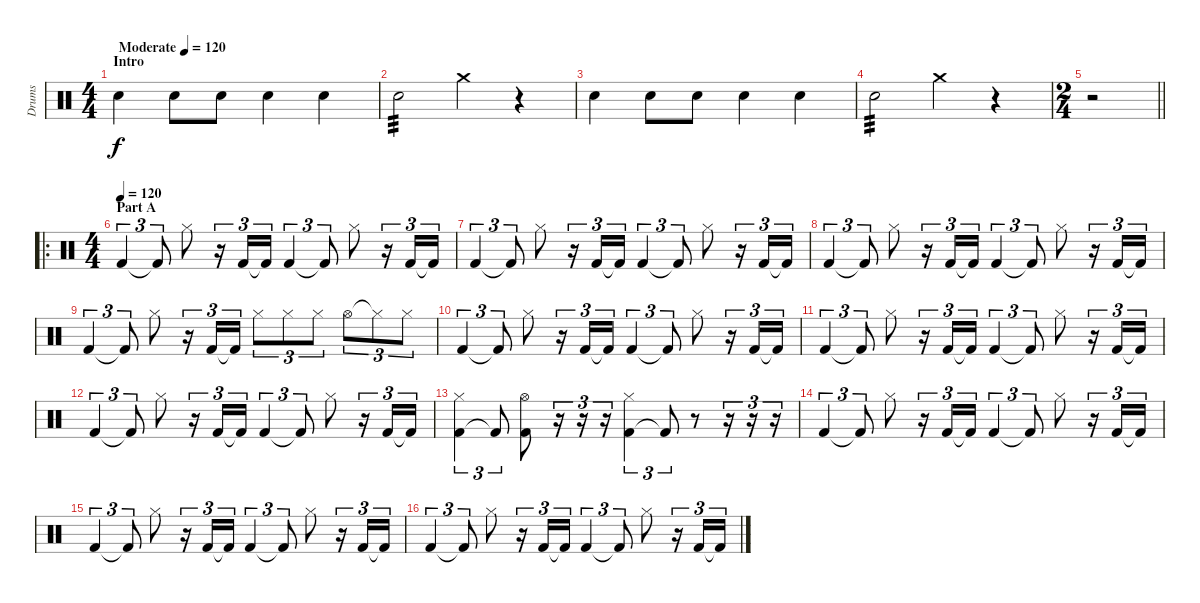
\track ("Drums" "Drums") {instrument percussion}
\staff {score}
\articulation defaults
\ts (4 4)
\section ("" "Intro")
\tempo (120 "Moderate")
\tempo 155
\tempo (120 "Moderate")
\clef neutral
\ks c "Electric Snare (hit)".4{dy f} "Electric Snare (hit)".8 "Electric Snare (hit)".8 "Electric Snare (hit)".4 "Electric Snare (hit)".4
|
"Electric Snare (hit)".2{tp 3} "Crash medium (hit)".4 r.4 |
"Electric Snare (hit)".4 "Electric Snare (hit)".8 "Electric Snare (hit)".8 "Electric Snare (hit)".4 "Electric Snare (hit)".4 |
"Electric Snare (hit)".2{tp 3} "Crash medium (hit)".4 r.4 |
\ts (2 4)
\barLineRight lightlight
r.2 |
\ro
\ts (4 4)
\section ("" "Part A")
\tempo (120)
"Kick (hit) 2".4{tu (3 2)} "Kick (hit) 2"{t}.8{tu (3 2)} "Hi-Hat (closed)".8 r.16{tu (3 2)} "Kick (hit) 2".16{tu (3 2)} "Kick (hit) 2"{t}.16{tu (3 2)} "Kick (hit) 2".4{tu (3 2)} "Kick (hit) 2"{t}.8{tu (3 2)} "Hi-Hat (closed)".8 r.16{tu (3 2)} "Kick (hit) 2".16{tu (3 2)} "Kick (hit) 2"{t}.16{tu (3 2)} |
"Kick (hit) 2".4{tu (3 2)} "Kick (hit) 2"{t}.8{tu (3 2)} "Hi-Hat (closed)".8 r.16{tu (3 2)} "Kick (hit) 2".16{tu (3 2)} "Kick (hit) 2"{t}.16{tu (3 2)} "Kick (hit) 2".4{tu (3 2)} "Kick (hit) 2"{t}.8{tu (3 2)} "Hi-Hat (closed)".8 r.16{tu (3 2)} "Kick (hit) 2".16{tu (3 2)} "Kick (hit) 2"{t}.16{tu (3 2)} |
"Kick (hit) 2".4{tu (3 2)} "Kick (hit) 2"{t}.8{tu (3 2)} "Hi-Hat (closed)".8 r.16{tu (3 2)} "Kick (hit) 2".16{tu (3 2)} "Kick (hit) 2"{t}.16{tu (3 2)} "Kick (hit) 2".4{tu (3 2)} "Kick (hit) 2"{t}.8{tu (3 2)} "Hi-Hat (closed)".8 r.16{tu (3 2)} "Kick (hit) 2".16{tu (3 2)} "Kick (hit) 2"{t}.16{tu (3 2)} |
"Kick (hit) 2".4{tu (3 2)} "Kick (hit) 2"{t}.8{tu (3 2)} "Hi-Hat (closed)".8 r.16{tu (3 2)} "Kick (hit) 2".16{tu (3 2)} "Kick (hit) 2"{t}.16{tu (3 2)} "Hi-Hat (closed)".8{tu (3 2)} "Hi-Hat (closed)".8{tu (3 2)} "Hi-Hat (closed)".8{tu (3 2)} "Hi-Hat (open)".8{tu (3 2)} "Hi-Hat (closed)"{t}.8{tu (3 2)} "Hi-Hat (closed)".8{tu (3 2)} |
"Kick (hit) 2".4{tu (3 2)} "Kick (hit) 2"{t}.8{tu (3 2)} "Hi-Hat (closed)".8 r.16{tu (3 2)} "Kick (hit) 2".16{tu (3 2)} "Kick (hit) 2"{t}.16{tu (3 2)} "Kick (hit) 2".4{tu (3 2)} "Kick (hit) 2"{t}.8{tu (3 2)} "Hi-Hat (closed)".8 r.16{tu (3 2)} "Kick (hit) 2".16{tu (3 2)} "Kick (hit) 2"{t}.16{tu (3 2)} |
"Kick (hit) 2".4{tu (3 2)} "Kick (hit) 2"{t}.8{tu (3 2)} "Hi-Hat (closed)".8 r.16{tu (3 2)} "Kick (hit) 2".16{tu (3 2)} "Kick (hit) 2"{t}.16{tu (3 2)} "Kick (hit) 2".4{tu (3 2)} "Kick (hit) 2"{t}.8{tu (3 2)} "Hi-Hat (closed)".8 r.16{tu (3 2)} "Kick (hit) 2".16{tu (3 2)} "Kick (hit) 2"{t}.16{tu (3 2)} |
"Kick (hit) 2".4{tu (3 2)} "Kick (hit) 2"{t}.8{tu (3 2)} "Hi-Hat (closed)".8 r.16{tu (3 2)} "Kick (hit) 2".16{tu (3 2)} "Kick (hit) 2"{t}.16{tu (3 2)} "Kick (hit) 2".4{tu (3 2)} "Kick (hit) 2"{t}.8{tu (3 2)} "Hi-Hat (closed)".8 r.16{tu (3 2)} "Kick (hit) 2".16{tu (3 2)} "Kick (hit) 2"{t}.16{tu (3 2)} |
("Kick (hit) 2" "Hi-Hat (closed)").4{tu (3 2)} "Kick (hit) 2"{t}.8{tu (3 2)} ("Kick (hit) 2" "Hi-Hat (open)").8 r.16{tu (3 2)} r.16{tu (3 2)} r.16{tu (3 2)} ("Kick (hit) 2" "Hi-Hat (closed)").4{tu (3 2)} "Kick (hit) 2"{t}.8{tu (3 2)} r.8 r.16{tu (3 2)} r.16{tu (3 2)} r.16{tu (3 2)} |
"Kick (hit) 2".4{tu (3 2)} "Kick (hit) 2"{t}.8{tu (3 2)} "Hi-Hat (closed)".8 r.16{tu (3 2)} "Kick (hit) 2".16{tu (3 2)} "Kick (hit) 2"{t}.16{tu (3 2)} "Kick (hit) 2".4{tu (3 2)} "Kick (hit) 2"{t}.8{tu (3 2)} "Hi-Hat (closed)".8 r.16{tu (3 2)} "Kick (hit) 2".16{tu (3 2)} "Kick (hit) 2"{t}.16{tu (3 2)} |
"Kick (hit) 2".4{tu (3 2)} "Kick (hit) 2"{t}.8{tu (3 2)} "Hi-Hat (closed)".8 r.16{tu (3 2)} "Kick (hit) 2".16{tu (3 2)} "Kick (hit) 2"{t}.16{tu (3 2)} "Kick (hit) 2".4{tu (3 2)} "Kick (hit) 2"{t}.8{tu (3 2)} "Hi-Hat (closed)".8 r.16{tu (3 2)} "Kick (hit) 2".16{tu (3 2)} "Kick (hit) 2"{t}.16{tu (3 2)} |
"Kick (hit) 2".4{tu (3 2)} "Kick (hit) 2"{t}.8{tu (3 2)} "Hi-Hat (closed)".8 r.16{tu (3 2)} "Kick (hit) 2".16{tu (3 2)} "Kick (hit) 2"{t}.16{tu (3 2)} "Kick (hit) 2".4{tu (3 2)} "Kick (hit) 2"{t}.8{tu (3 2)} "Hi-Hat (closed)".8 r.16{tu (3 2)} "Kick (hit) 2".16{tu (3 2)} "Kick (hit) 2"{t}.16{tu (3 2)}
